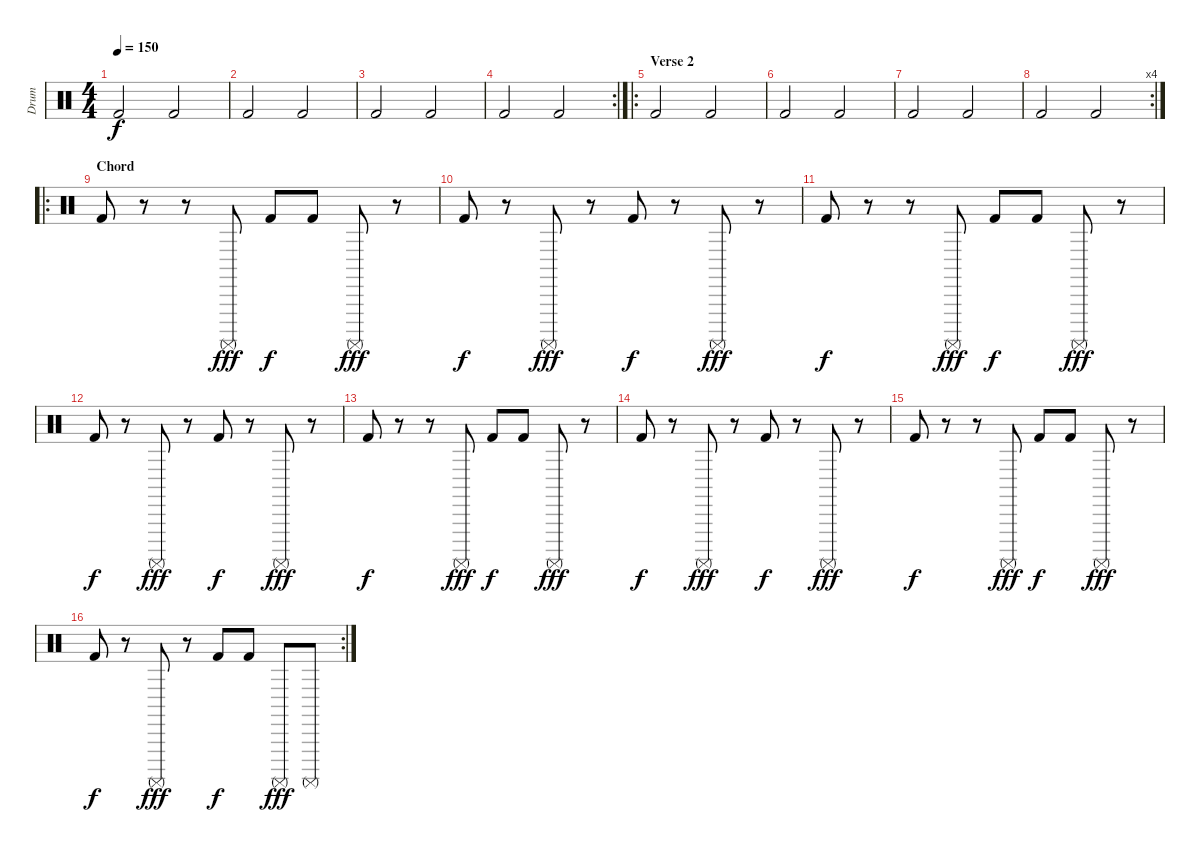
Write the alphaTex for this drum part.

\track ("Drum" "Drum") {instrument percussion}
\staff {score}
\articulation defaults
\ts (4 4)
\tempo 150
\clef neutral
\ks c "Kick (hit) 2".2{dy f} "Kick (hit) 2".2
|
"Kick (hit) 2".2 "Kick (hit) 2".2 |
"Kick (hit) 2".2 "Kick (hit) 2".2 |
\rc 2 "Kick (hit) 2".2 "Kick (hit) 2".2
|
\ro
\section ("" "Verse 2")
"Kick (hit) 2".2 "Kick (hit) 2".2 |
"Kick (hit) 2".2 "Kick (hit) 2".2 |
"Kick (hit) 2".2 "Kick (hit) 2".2 |
\rc 4 "Kick (hit) 2".2 "Kick (hit) 2".2
|
\ro
\section ("" "Chord")
"Kick (hit) 2".8 r.8 r.8 "Surdo (mute)".8{dy fff} "Kick (hit) 2".8{dy f} "Kick (hit) 2".8 "Surdo (mute)".8{dy fff} r.8 |
"Kick (hit) 2".8{dy f} r.8 "Surdo (mute)".8{dy fff} r.8 "Kick (hit) 2".8{dy f} r.8 "Surdo (mute)".8{dy fff} r.8 |
"Kick (hit) 2".8{dy f} r.8 r.8 "Surdo (mute)".8{dy fff} "Kick (hit) 2".8{dy f} "Kick (hit) 2".8 "Surdo (mute)".8{dy fff} r.8 |
"Kick (hit) 2".8{dy f} r.8 "Surdo (mute)".8{dy fff} r.8 "Kick (hit) 2".8{dy f} r.8 "Surdo (mute)".8{dy fff} r.8 |
"Kick (hit) 2".8{dy f} r.8 r.8 "Surdo (mute)".8{dy fff} "Kick (hit) 2".8{dy f} "Kick (hit) 2".8 "Surdo (mute)".8{dy fff} r.8 |
"Kick (hit) 2".8{dy f} r.8 "Surdo (mute)".8{dy fff} r.8 "Kick (hit) 2".8{dy f} r.8 "Surdo (mute)".8{dy fff} r.8 |
"Kick (hit) 2".8{dy f} r.8 r.8 "Surdo (mute)".8{dy fff} "Kick (hit) 2".8{dy f} "Kick (hit) 2".8 "Surdo (mute)".8{dy fff} r.8 |
\rc 2 "Kick (hit) 2".8{dy f}
r.8 "Surdo (mute)".8{dy fff} r.8 "Kick (hit) 2".8{dy f} "Kick (hit) 2".8 "Surdo (mute)".8{dy fff} "Surdo (mute)".8
